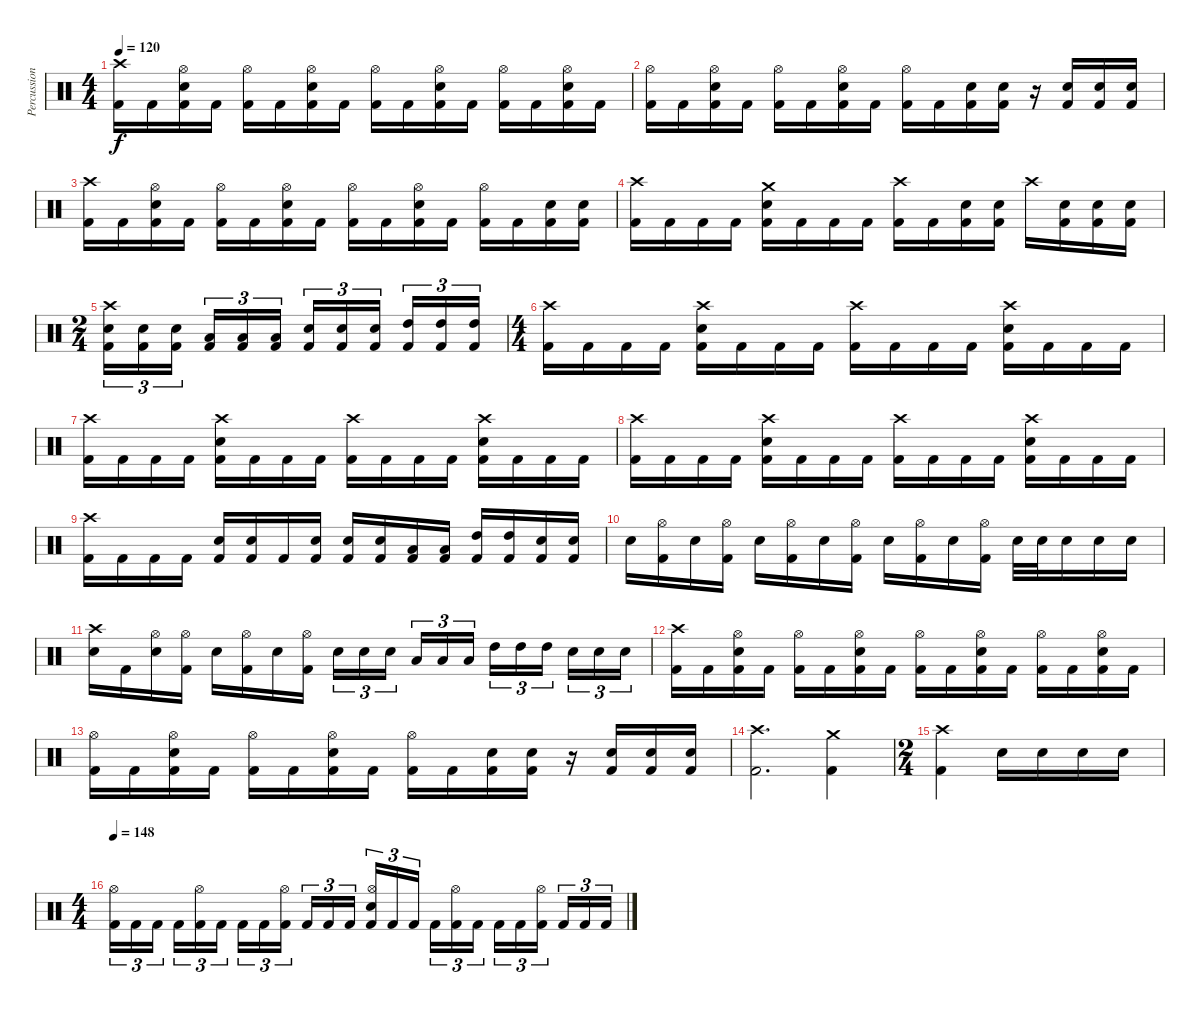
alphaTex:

\track ("Percussion" "Percussion") {instrument percussion}
\staff {score}
\articulation defaults
\ts (4 4)
\tempo 120
\clef neutral
\ks c
("Crash high (hit)" "Kick (hit) 2").16{dy f} "Kick (hit) 2".16 ("Hi-Hat (open)" "Electric Snare (hit)" "Kick (hit) 2").16 "Kick (hit) 2".16 ("Hi-Hat (open)" "Kick (hit) 2").16 "Kick (hit) 2".16 ("Hi-Hat (open)" "Electric Snare (hit)" "Kick (hit) 2").16 "Kick (hit) 2".16 ("Hi-Hat (open)" "Kick (hit) 2").16 "Kick (hit) 2".16 ("Hi-Hat (open)" "Electric Snare (hit)" "Kick (hit) 2").16 "Kick (hit) 2".16 ("Hi-Hat (open)" "Kick (hit) 2").16 "Kick (hit) 2".16 ("Hi-Hat (open)" "Electric Snare (hit)" "Kick (hit) 2").16 "Kick (hit) 2".16 |
("Hi-Hat (open)" "Kick (hit) 2").16 "Kick (hit) 2".16 ("Hi-Hat (open)" "Electric Snare (hit)" "Kick (hit) 2").16 "Kick (hit) 2".16 ("Hi-Hat (open)" "Kick (hit) 2").16 "Kick (hit) 2".16 ("Hi-Hat (open)" "Electric Snare (hit)" "Kick (hit) 2").16 "Kick (hit) 2".16 ("Hi-Hat (open)" "Kick (hit) 2").16 "Kick (hit) 2".16 ("Electric Snare (hit)" "Kick (hit) 2").16 ("Electric Snare (hit)" "Kick (hit) 2").16 r.16 ("Electric Snare (hit)" "Kick (hit) 2").16 ("Electric Snare (hit)" "Kick (hit) 2").16 ("Electric Snare (hit)" "Kick (hit) 2").16 |
("Crash high (hit)" "Kick (hit) 2").16 "Kick (hit) 2".16 ("Hi-Hat (open)" "Electric Snare (hit)" "Kick (hit) 2").16 "Kick (hit) 2".16 ("Hi-Hat (open)" "Kick (hit) 2").16 "Kick (hit) 2".16 ("Hi-Hat (open)" "Electric Snare (hit)" "Kick (hit) 2").16 "Kick (hit) 2".16 ("Hi-Hat (open)" "Kick (hit) 2").16 "Kick (hit) 2".16 ("Hi-Hat (open)" "Electric Snare (hit)" "Kick (hit) 2").16 "Kick (hit) 2".16 ("Hi-Hat (open)" "Kick (hit) 2").16 "Kick (hit) 2".16 ("Electric Snare (hit)" "Kick (hit) 2").16 ("Electric Snare (hit)" "Kick (hit) 2").16 |
("Crash high (hit)" "Kick (hit) 2").16 "Kick (hit) 2".16 "Kick (hit) 2".16 "Kick (hit) 2".16 ("Crash medium (hit)" "Electric Snare (hit)" "Kick (hit) 2").16 "Kick (hit) 2".16 "Kick (hit) 2".16 "Kick (hit) 2".16 ("Crash high (hit)" "Kick (hit) 2").16 "Kick (hit) 2".16 ("Electric Snare (hit)" "Kick (hit) 2").16 ("Electric Snare (hit)" "Kick (hit) 2").16 "Crash high (hit)".16 ("Electric Snare (hit)" "Kick (hit) 2").16 ("Electric Snare (hit)" "Kick (hit) 2").16 ("Electric Snare (hit)" "Kick (hit) 2").16 |
\ts (2 4)
("Crash high (hit)" "Electric Snare (hit)" "Kick (hit) 2").16{tu (3 2)} ("Electric Snare (hit)" "Kick (hit) 2").16{tu (3 2)} ("Electric Snare (hit)" "Kick (hit) 2").16{tu (3 2)} ("Low Tom (hit)" "Kick (hit) 2").16{tu (3 2)} ("Low Tom (hit)" "Kick (hit) 2").16{tu (3 2)} ("Low Tom (hit)" "Kick (hit) 2").16{tu (3 2)} ("Electric Snare (hit)" "Kick (hit) 2").16{tu (3 2)} ("Electric Snare (hit)" "Kick (hit) 2").16{tu (3 2)} ("Electric Snare (hit)" "Kick (hit) 2").16{tu (3 2)} ("High Tom (hit)" "Kick (hit) 2").16{tu (3 2)} ("High Tom (hit)" "Kick (hit) 2").16{tu (3 2)} ("High Tom (hit)" "Kick (hit) 2").16{tu (3 2)} |
\ts (4 4)
("Crash high (hit)" "Kick (hit) 2").16 "Kick (hit) 2".16 "Kick (hit) 2".16 "Kick (hit) 2".16 ("Crash high (hit)" "Electric Snare (hit)" "Kick (hit) 2").16 "Kick (hit) 2".16 "Kick (hit) 2".16 "Kick (hit) 2".16 ("Crash high (hit)" "Kick (hit) 2").16 "Kick (hit) 2".16 "Kick (hit) 2".16 "Kick (hit) 2".16 ("Crash high (hit)" "Electric Snare (hit)" "Kick (hit) 2").16 "Kick (hit) 2".16 "Kick (hit) 2".16 "Kick (hit) 2".16 |
("Crash high (hit)" "Kick (hit) 2").16 "Kick (hit) 2".16 "Kick (hit) 2".16 "Kick (hit) 2".16 ("Crash high (hit)" "Electric Snare (hit)" "Kick (hit) 2").16 "Kick (hit) 2".16 "Kick (hit) 2".16 "Kick (hit) 2".16 ("Crash high (hit)" "Kick (hit) 2").16 "Kick (hit) 2".16 "Kick (hit) 2".16 "Kick (hit) 2".16 ("Crash high (hit)" "Electric Snare (hit)" "Kick (hit) 2").16 "Kick (hit) 2".16 "Kick (hit) 2".16 "Kick (hit) 2".16 |
("Crash high (hit)" "Kick (hit) 2").16 "Kick (hit) 2".16 "Kick (hit) 2".16 "Kick (hit) 2".16 ("Crash high (hit)" "Electric Snare (hit)" "Kick (hit) 2").16 "Kick (hit) 2".16 "Kick (hit) 2".16 "Kick (hit) 2".16 ("Crash high (hit)" "Kick (hit) 2").16 "Kick (hit) 2".16 "Kick (hit) 2".16 "Kick (hit) 2".16 ("Crash high (hit)" "Electric Snare (hit)" "Kick (hit) 2").16 "Kick (hit) 2".16 "Kick (hit) 2".16 "Kick (hit) 2".16 |
("Crash high (hit)" "Kick (hit) 2").16 "Kick (hit) 2".16 "Kick (hit) 2".16 "Kick (hit) 2".16 ("Electric Snare (hit)" "Kick (hit) 2").16 ("Electric Snare (hit)" "Kick (hit) 2").16 "Kick (hit) 2".16 ("Electric Snare (hit)" "Kick (hit) 2").16 ("Electric Snare (hit)" "Kick (hit) 2").16 ("Electric Snare (hit)" "Kick (hit) 2").16 ("Low Tom (hit)" "Kick (hit) 2").16 ("Low Tom (hit)" "Kick (hit) 2").16 ("High Tom (hit)" "Kick (hit) 2").16 ("High Tom (hit)" "Kick (hit) 2").16 ("Electric Snare (hit)" "Kick (hit) 2").16 ("Electric Snare (hit)" "Kick (hit) 2").16 |
"Electric Snare (hit)".16 ("Hi-Hat (open)" "Kick (hit) 2").16 "Electric Snare (hit)".16 ("Hi-Hat (open)" "Kick (hit) 2").16 "Electric Snare (hit)".16 ("Hi-Hat (open)" "Kick (hit) 2").16 "Electric Snare (hit)".16 ("Hi-Hat (open)" "Kick (hit) 2").16 "Electric Snare (hit)".16 ("Hi-Hat (open)" "Kick (hit) 2").16 "Electric Snare (hit)".16 ("Hi-Hat (open)" "Kick (hit) 2").16 "Electric Snare (hit)".32 "Electric Snare (hit)".32 "Electric Snare (hit)".16 "Electric Snare (hit)".16 "Electric Snare (hit)".16 |
("Crash high (hit)" "Electric Snare (hit)").16 "Kick (hit) 2".16 ("Hi-Hat (open)" "Electric Snare (hit)").16 ("Hi-Hat (open)" "Kick (hit) 2").16 "Electric Snare (hit)".16 ("Hi-Hat (open)" "Kick (hit) 2").16 "Electric Snare (hit)".16 ("Hi-Hat (open)" "Kick (hit) 2").16 "Electric Snare (hit)".16{tu (3 2)} "Electric Snare (hit)".16{tu (3 2)} "Electric Snare (hit)".16{tu (3 2)} "Low Tom (hit)".16{tu (3 2)} "Low Tom (hit)".16{tu (3 2)} "Low Tom (hit)".16{tu (3 2)} "High Tom (hit)".16{tu (3 2)} "High Tom (hit)".16{tu (3 2)} "High Tom (hit)".16{tu (3 2)} "Electric Snare (hit)".16{tu (3 2)} "Electric Snare (hit)".16{tu (3 2)} "Electric Snare (hit)".16{tu (3 2)} |
("Crash high (hit)" "Kick (hit) 2").16 "Kick (hit) 2".16 ("Hi-Hat (open)" "Electric Snare (hit)" "Kick (hit) 2").16 "Kick (hit) 2".16 ("Hi-Hat (open)" "Kick (hit) 2").16 "Kick (hit) 2".16 ("Hi-Hat (open)" "Electric Snare (hit)" "Kick (hit) 2").16 "Kick (hit) 2".16 ("Hi-Hat (open)" "Kick (hit) 2").16 "Kick (hit) 2".16 ("Hi-Hat (open)" "Electric Snare (hit)" "Kick (hit) 2").16 "Kick (hit) 2".16 ("Hi-Hat (open)" "Kick (hit) 2").16 "Kick (hit) 2".16 ("Hi-Hat (open)" "Electric Snare (hit)" "Kick (hit) 2").16 "Kick (hit) 2".16 |
("Hi-Hat (open)" "Kick (hit) 2").16 "Kick (hit) 2".16 ("Hi-Hat (open)" "Electric Snare (hit)" "Kick (hit) 2").16 "Kick (hit) 2".16 ("Hi-Hat (open)" "Kick (hit) 2").16 "Kick (hit) 2".16 ("Hi-Hat (open)" "Electric Snare (hit)" "Kick (hit) 2").16 "Kick (hit) 2".16 ("Hi-Hat (open)" "Kick (hit) 2").16 "Kick (hit) 2".16 ("Electric Snare (hit)" "Kick (hit) 2").16 ("Electric Snare (hit)" "Kick (hit) 2").16 r.16 ("Electric Snare (hit)" "Kick (hit) 2").16 ("Electric Snare (hit)" "Kick (hit) 2").16 ("Electric Snare (hit)" "Kick (hit) 2").16 |
("Crash high (hit)" "Kick (hit) 2").2{d} ("Crash medium (hit)" "Kick (hit) 2").4 |
\ts (2 4)
("Crash high (hit)" "Kick (hit) 2").4 "Electric Snare (hit)".16 "Electric Snare (hit)".16 "Electric Snare (hit)".16 "Electric Snare (hit)".16 |
\ts (4 4)
\tempo 148
("Hi-Hat (open)" "Kick (hit) 2").16{tu (3 2)} "Kick (hit) 2".16{tu (3 2)} "Kick (hit) 2".16{tu (3 2)} "Kick (hit) 2".16{tu (3 2)} ("Hi-Hat (open)" "Kick (hit) 2").16{tu (3 2)} "Kick (hit) 2".16{tu (3 2)} "Kick (hit) 2".16{tu (3 2)} "Kick (hit) 2".16{tu (3 2)} ("Hi-Hat (open)" "Kick (hit) 2").16{tu (3 2)} "Kick (hit) 2".16{tu (3 2)} "Kick (hit) 2".16{tu (3 2)} "Kick (hit) 2".16{tu (3 2)} ("Hi-Hat (open)" "Electric Snare (hit)" "Kick (hit) 2").16{tu (3 2)} "Kick (hit) 2".16{tu (3 2)} "Kick (hit) 2".16{tu (3 2)} "Kick (hit) 2".16{tu (3 2)} ("Hi-Hat (open)" "Kick (hit) 2").16{tu (3 2)} "Kick (hit) 2".16{tu (3 2)} "Kick (hit) 2".16{tu (3 2)} "Kick (hit) 2".16{tu (3 2)} ("Hi-Hat (open)" "Kick (hit) 2").16{tu (3 2)} "Kick (hit) 2".16{tu (3 2)} "Kick (hit) 2".16{tu (3 2)} "Kick (hit) 2".16{tu (3 2)}
